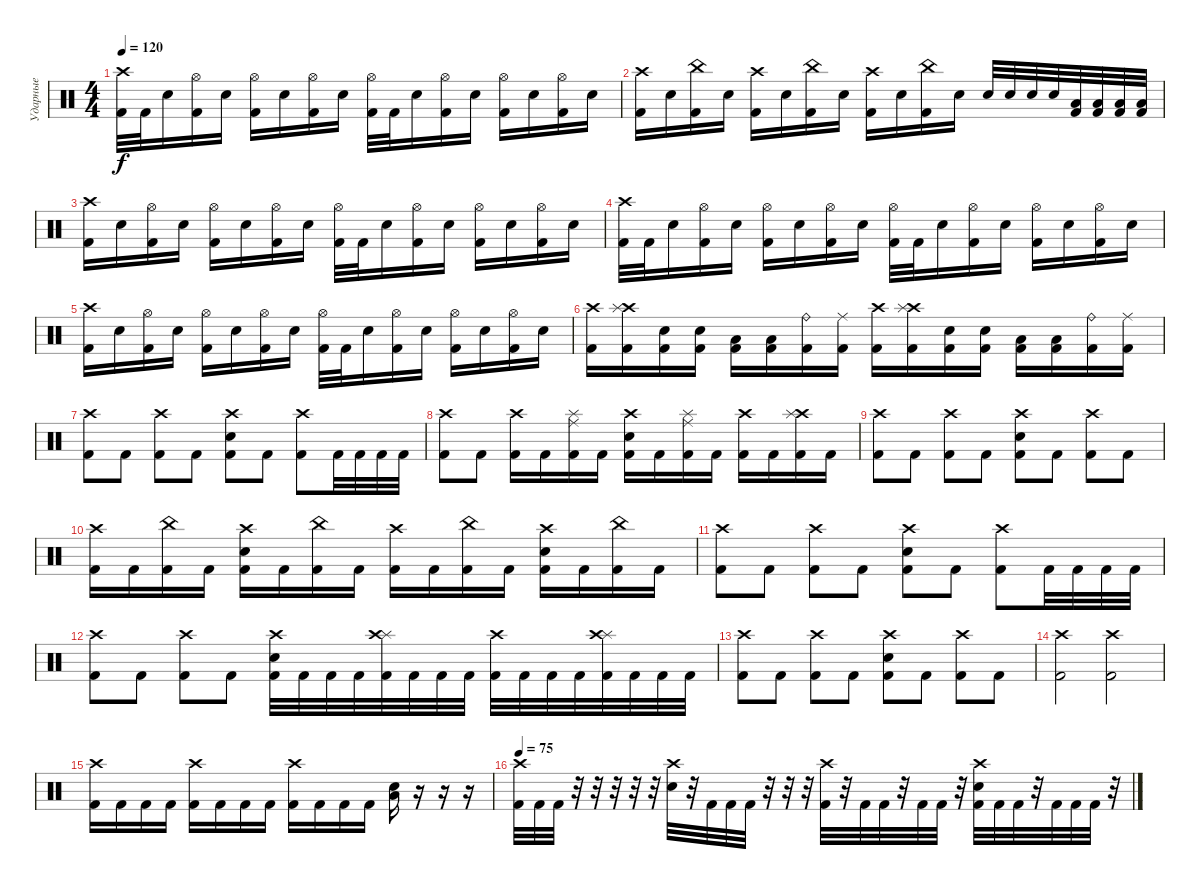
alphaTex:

\track ("Ударные" "Ударные") {instrument percussion}
\staff {score}
\articulation defaults
\ts (4 4)
\tempo 120
\clef neutral
\ks c
("Crash high (hit)" "Kick (hit) 2").32{dy f} "Kick (hit) 2".32 "Electric Snare (hit)".16 ("Hi-Hat (open)" "Kick (hit) 2").16 "Electric Snare (hit)".16 ("Hi-Hat (open)" "Kick (hit) 2").16 "Electric Snare (hit)".16 ("Hi-Hat (open)" "Kick (hit) 2").16 "Electric Snare (hit)".16 ("Hi-Hat (open)" "Kick (hit) 2").32 "Kick (hit) 2".32 "Electric Snare (hit)".16 ("Hi-Hat (open)" "Kick (hit) 2").16 "Electric Snare (hit)".16 ("Hi-Hat (open)" "Kick (hit) 2").16 "Electric Snare (hit)".16 ("Hi-Hat (open)" "Kick (hit) 2").16 "Electric Snare (hit)".16 |
("Crash high (hit)" "Kick (hit) 2").16 "Electric Snare (hit)".16 ("China (hit)" "Kick (hit) 2").16 "Electric Snare (hit)".16 ("Crash high (hit)" "Kick (hit) 2").16 "Electric Snare (hit)".16 ("China (hit)" "Kick (hit) 2").16 "Electric Snare (hit)".16 ("Crash high (hit)" "Kick (hit) 2").16 "Electric Snare (hit)".16 ("China (hit)" "Kick (hit) 2").16 "Electric Snare (hit)".16 "Electric Snare (hit)".32 "Electric Snare (hit)".32 "Electric Snare (hit)".32 "Electric Snare (hit)".32 ("Kick (hit) 2" "Low Tom (hit)").32 ("Kick (hit) 2" "Low Tom (hit)").32 ("Kick (hit) 2" "Low Tom (hit)").32 ("Kick (hit) 2" "Low Tom (hit)").32 |
("Crash high (hit)" "Kick (hit) 2").16 "Electric Snare (hit)".16 ("Hi-Hat (open)" "Kick (hit) 2").16 "Electric Snare (hit)".16 ("Hi-Hat (open)" "Kick (hit) 2").16 "Electric Snare (hit)".16 ("Hi-Hat (open)" "Kick (hit) 2").16 "Electric Snare (hit)".16 ("Hi-Hat (open)" "Kick (hit) 2").32 "Kick (hit) 2".32 "Electric Snare (hit)".16 ("Hi-Hat (open)" "Kick (hit) 2").16 "Electric Snare (hit)".16 ("Hi-Hat (open)" "Kick (hit) 2").16 "Electric Snare (hit)".16 ("Hi-Hat (open)" "Kick (hit) 2").16 "Electric Snare (hit)".16 |
("Crash high (hit)" "Kick (hit) 2").32 "Kick (hit) 2".32 "Electric Snare (hit)".16 ("Hi-Hat (open)" "Kick (hit) 2").16 "Electric Snare (hit)".16 ("Hi-Hat (open)" "Kick (hit) 2").16 "Electric Snare (hit)".16 ("Hi-Hat (open)" "Kick (hit) 2").16 "Electric Snare (hit)".16 ("Hi-Hat (open)" "Kick (hit) 2").32 "Kick (hit) 2".32 "Electric Snare (hit)".16 ("Hi-Hat (open)" "Kick (hit) 2").16 "Electric Snare (hit)".16 ("Hi-Hat (open)" "Kick (hit) 2").16 "Electric Snare (hit)".16 ("Hi-Hat (open)" "Kick (hit) 2").16 "Electric Snare (hit)".16 |
("Crash high (hit)" "Kick (hit) 2").16 "Electric Snare (hit)".16 ("Hi-Hat (open)" "Kick (hit) 2").16 "Electric Snare (hit)".16 ("Hi-Hat (open)" "Kick (hit) 2").16 "Electric Snare (hit)".16 ("Hi-Hat (open)" "Kick (hit) 2").16 "Electric Snare (hit)".16 ("Hi-Hat (open)" "Kick (hit) 2").32 "Kick (hit) 2".32 "Electric Snare (hit)".16 ("Hi-Hat (open)" "Kick (hit) 2").16 "Electric Snare (hit)".16 ("Hi-Hat (open)" "Kick (hit) 2").16 "Electric Snare (hit)".16 ("Hi-Hat (open)" "Kick (hit) 2").16 "Electric Snare (hit)".16 |
("Crash high (hit)" "Kick (hit) 2").16 ("Crash high (hit)" "Splash (hit)" "Kick (hit) 2").16 ("Electric Snare (hit)" "Kick (hit) 2").16 ("Electric Snare (hit)" "Kick (hit) 2").16 ("Low Tom (hit)" "Kick (hit) 2").16 ("Low Tom (hit)" "Kick (hit) 2").16 ("Ride (bell)" "Kick (hit) 2").16 ("Ride (middle)" "Kick (hit) 2").16 ("Crash high (hit)" "Kick (hit) 2").16 ("Crash high (hit)" "Splash (hit)" "Kick (hit) 2").16 ("Electric Snare (hit)" "Kick (hit) 2").16 ("Electric Snare (hit)" "Kick (hit) 2").16 ("Low Tom (hit)" "Kick (hit) 2").16 ("Low Tom (hit)" "Kick (hit) 2").16 ("Ride (bell)" "Kick (hit) 2").16 ("Ride (middle)" "Kick (hit) 2").16 |
("Crash high (hit)" "Kick (hit) 2").8 "Kick (hit) 2".8 ("Crash high (hit)" "Kick (hit) 2").8 "Kick (hit) 2".8 ("Crash high (hit)" "Electric Snare (hit)" "Kick (hit) 2").8 "Kick (hit) 2".8 ("Crash high (hit)" "Kick (hit) 2").8 "Kick (hit) 2".32 "Kick (hit) 2".32 "Kick (hit) 2".32 "Kick (hit) 2".32 |
("Crash high (hit)" "Kick (hit) 2").8 "Kick (hit) 2".8 ("Crash high (hit)" "Kick (hit) 2").16 "Kick (hit) 2".16 ("Ride (middle)" "Splash (hit)" "Kick (hit) 2").16 "Kick (hit) 2".16 ("Crash high (hit)" "Electric Snare (hit)" "Kick (hit) 2").16 "Kick (hit) 2".16 ("Ride (middle)" "Splash (hit)" "Kick (hit) 2").16 "Kick (hit) 2".16 ("Crash high (hit)" "Kick (hit) 2").16 "Kick (hit) 2".16 ("Crash high (hit)" "Splash (hit)" "Kick (hit) 2").16 "Kick (hit) 2".16 |
("Crash high (hit)" "Kick (hit) 2").8 "Kick (hit) 2".8 ("Crash high (hit)" "Kick (hit) 2").8 "Kick (hit) 2".8 ("Crash high (hit)" "Electric Snare (hit)" "Kick (hit) 2").8 "Kick (hit) 2".8 ("Crash high (hit)" "Kick (hit) 2").8 "Kick (hit) 2".8 |
("Crash high (hit)" "Kick (hit) 2").16 "Kick (hit) 2".16 ("China (hit)" "Kick (hit) 2").16 "Kick (hit) 2".16 ("Crash high (hit)" "Electric Snare (hit)" "Kick (hit) 2").16 "Kick (hit) 2".16 ("China (hit)" "Kick (hit) 2").16 "Kick (hit) 2".16 ("Crash high (hit)" "Kick (hit) 2").16 "Kick (hit) 2".16 ("China (hit)" "Kick (hit) 2").16 "Kick (hit) 2".16 ("Crash high (hit)" "Electric Snare (hit)" "Kick (hit) 2").16 "Kick (hit) 2".16 ("China (hit)" "Kick (hit) 2").16 "Kick (hit) 2".16 |
("Crash high (hit)" "Kick (hit) 2").8 "Kick (hit) 2".8 ("Crash high (hit)" "Kick (hit) 2").8 "Kick (hit) 2".8 ("Crash high (hit)" "Electric Snare (hit)" "Kick (hit) 2").8 "Kick (hit) 2".8 ("Crash high (hit)" "Kick (hit) 2").8 "Kick (hit) 2".32 "Kick (hit) 2".32 "Kick (hit) 2".32 "Kick (hit) 2".32 |
("Crash high (hit)" "Kick (hit) 2").8 "Kick (hit) 2".8 ("Crash high (hit)" "Kick (hit) 2").8 "Kick (hit) 2".8 ("Crash high (hit)" "Electric Snare (hit)" "Kick (hit) 2").32 "Kick (hit) 2".32 "Kick (hit) 2".32 "Kick (hit) 2".32 ("Splash (hit)" "Crash high (hit)" "Kick (hit) 2").32 "Kick (hit) 2".32 "Kick (hit) 2".32 "Kick (hit) 2".32 ("Crash high (hit)" "Kick (hit) 2").32 "Kick (hit) 2".32 "Kick (hit) 2".32 "Kick (hit) 2".32 ("Splash (hit)" "Crash high (hit)" "Kick (hit) 2").32 "Kick (hit) 2".32 "Kick (hit) 2".32 "Kick (hit) 2".32 |
("Crash high (hit)" "Kick (hit) 2").8 "Kick (hit) 2".8 ("Crash high (hit)" "Kick (hit) 2").8 "Kick (hit) 2".8 ("Crash high (hit)" "Electric Snare (hit)" "Kick (hit) 2").8 "Kick (hit) 2".8 ("Crash high (hit)" "Kick (hit) 2").8 "Kick (hit) 2".8 |
("Crash high (hit)" "Kick (hit) 2").2 ("Crash high (hit)" "Kick (hit) 2").2 |
("Crash high (hit)" "Kick (hit) 2").16 "Kick (hit) 2".16 "Kick (hit) 2".16 "Kick (hit) 2".16 ("Crash high (hit)" "Kick (hit) 2").16 "Kick (hit) 2".16 "Kick (hit) 2".16 "Kick (hit) 2".16 ("Crash high (hit)" "Kick (hit) 2").16 "Kick (hit) 2".16 "Kick (hit) 2".16 "Kick (hit) 2".16 ("Low Floor Tom (hit)" "Electric Snare (hit)").16 r.16 r.16 r.16 |
\tempo 75
("Crash high (hit)" "Kick (hit) 2").32 "Kick (hit) 2".32 "Kick (hit) 2".32 r.32 r.32 r.32 r.32 r.32 ("Crash high (hit)" "Electric Snare (hit)").32 r.32 "Kick (hit) 2".32 "Kick (hit) 2".32 "Kick (hit) 2".32 r.32 r.32 r.32 ("Crash high (hit)" "Kick (hit) 2").32 r.32 "Kick (hit) 2".32 "Kick (hit) 2".32 r.32 "Kick (hit) 2".32 "Kick (hit) 2".32 r.32 ("Crash high (hit)" "Electric Snare (hit)" "Kick (hit) 2").32 "Kick (hit) 2".32 "Kick (hit) 2".32 r.32 "Kick (hit) 2".32 "Kick (hit) 2".32 "Kick (hit) 2".32 r.32
